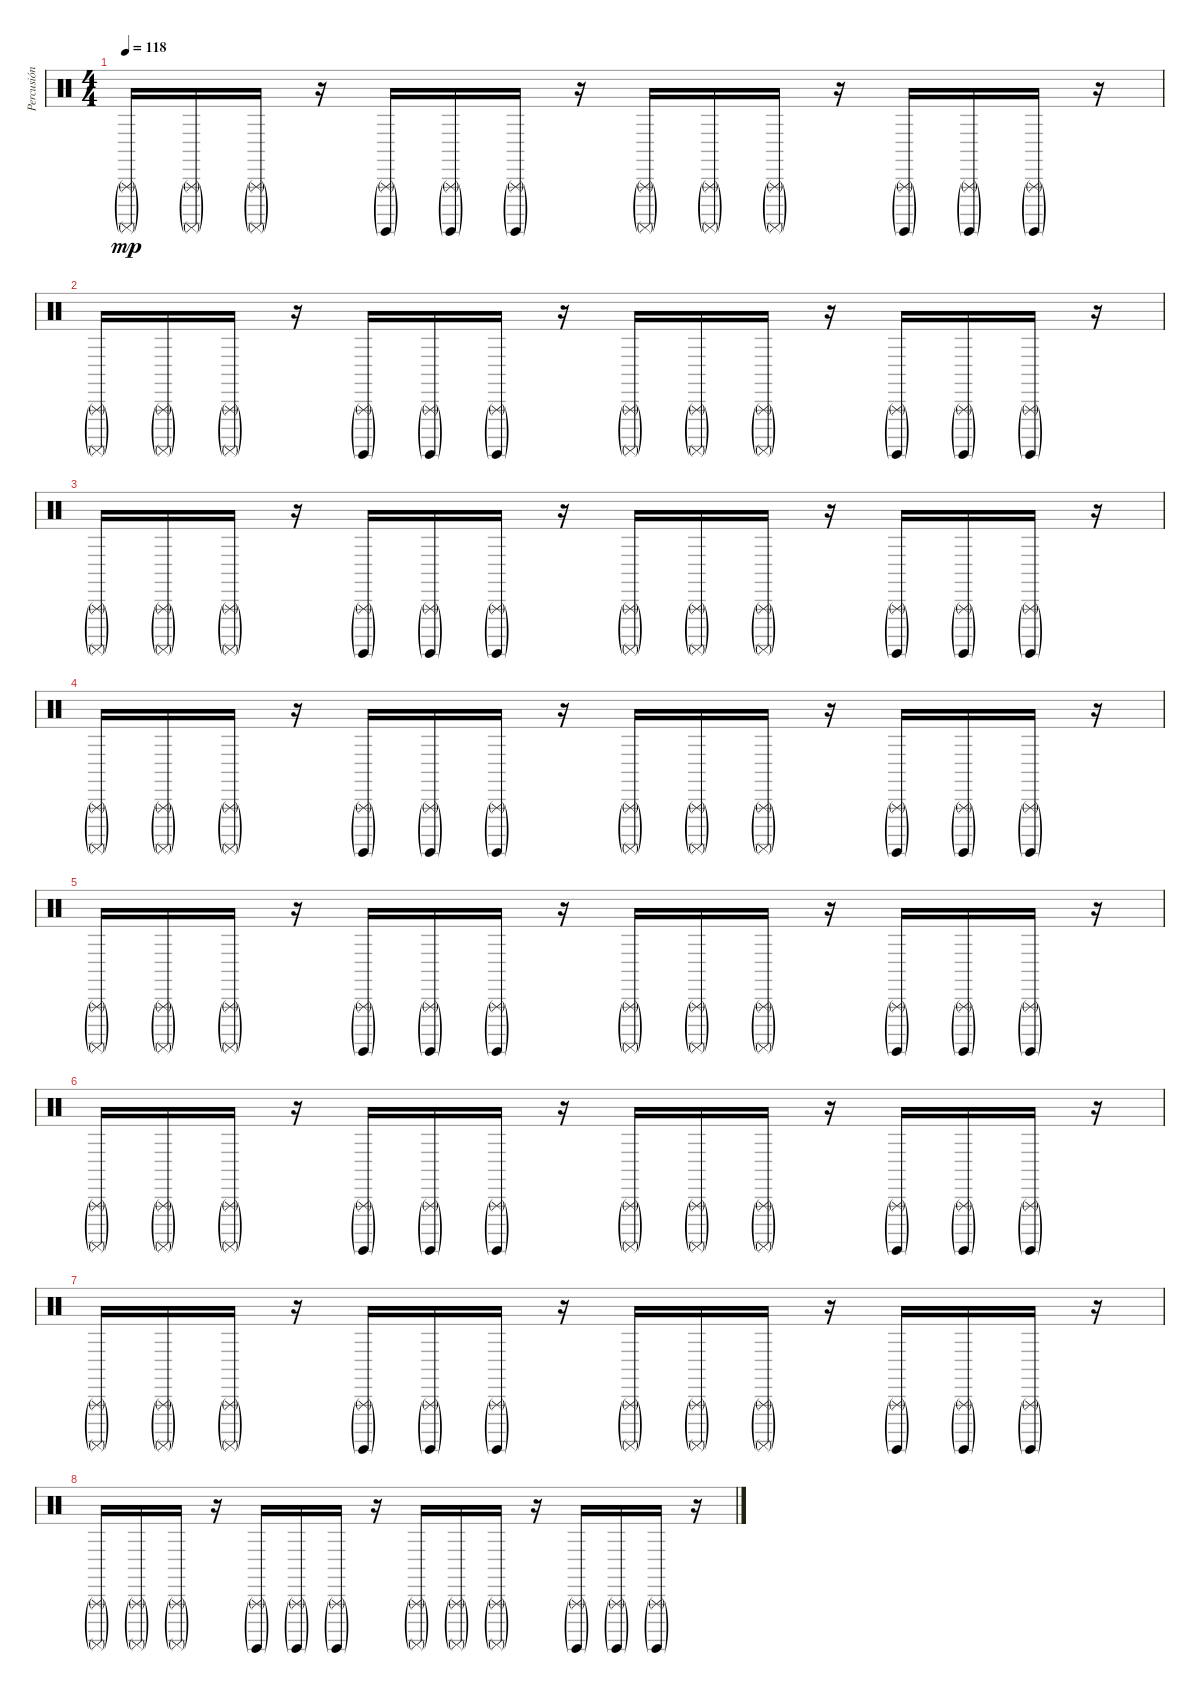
\track ("Percusión" "Percusión") {instrument percussion}
\staff {score}
\articulation defaults
\ts (4 4)
\tempo 118
\clef neutral
\ks c
("Triangle (rnute)"{g} "Surdo (mute)"{g}).16{dy mp} ("Triangle (rnute)"{g} "Surdo (mute)"{g}).16 ("Triangle (rnute)"{g} "Surdo (mute)"{g}).16 r.16 ("Triangle (rnute)"{g} "Surdo (hit)"{g}).16 ("Triangle (rnute)"{g} "Surdo (hit)"{g}).16 ("Triangle (rnute)"{g} "Surdo (hit)"{g}).16 r.16 ("Triangle (rnute)"{g} "Surdo (mute)"{g}).16 ("Triangle (rnute)"{g} "Surdo (mute)"{g}).16 ("Triangle (rnute)"{g} "Surdo (mute)"{g}).16 r.16 ("Triangle (rnute)"{g} "Surdo (hit)"{g}).16 ("Triangle (rnute)"{g} "Surdo (hit)"{g}).16 ("Triangle (rnute)"{g} "Surdo (hit)"{g}).16 r.16 |
("Triangle (rnute)"{g} "Surdo (mute)"{g}).16 ("Triangle (rnute)"{g} "Surdo (mute)"{g}).16 ("Triangle (rnute)"{g} "Surdo (mute)"{g}).16 r.16 ("Triangle (rnute)"{g} "Surdo (hit)"{g}).16 ("Triangle (rnute)"{g} "Surdo (hit)"{g}).16 ("Triangle (rnute)"{g} "Surdo (hit)"{g}).16 r.16 ("Triangle (rnute)"{g} "Surdo (mute)"{g}).16 ("Triangle (rnute)"{g} "Surdo (mute)"{g}).16 ("Triangle (rnute)"{g} "Surdo (mute)"{g}).16 r.16 ("Triangle (rnute)"{g} "Surdo (hit)"{g}).16 ("Triangle (rnute)"{g} "Surdo (hit)"{g}).16 ("Triangle (rnute)"{g} "Surdo (hit)"{g}).16 r.16 |
("Triangle (rnute)"{g} "Surdo (mute)"{g}).16 ("Triangle (rnute)"{g} "Surdo (mute)"{g}).16 ("Triangle (rnute)"{g} "Surdo (mute)"{g}).16 r.16 ("Triangle (rnute)"{g} "Surdo (hit)"{g}).16 ("Triangle (rnute)"{g} "Surdo (hit)"{g}).16 ("Triangle (rnute)"{g} "Surdo (hit)"{g}).16 r.16 ("Triangle (rnute)"{g} "Surdo (mute)"{g}).16 ("Triangle (rnute)"{g} "Surdo (mute)"{g}).16 ("Triangle (rnute)"{g} "Surdo (mute)"{g}).16 r.16 ("Triangle (rnute)"{g} "Surdo (hit)"{g}).16 ("Triangle (rnute)"{g} "Surdo (hit)"{g}).16 ("Triangle (rnute)"{g} "Surdo (hit)"{g}).16 r.16 |
("Triangle (rnute)"{g} "Surdo (mute)"{g}).16 ("Triangle (rnute)"{g} "Surdo (mute)"{g}).16 ("Triangle (rnute)"{g} "Surdo (mute)"{g}).16 r.16 ("Triangle (rnute)"{g} "Surdo (hit)"{g}).16 ("Triangle (rnute)"{g} "Surdo (hit)"{g}).16 ("Triangle (rnute)"{g} "Surdo (hit)"{g}).16 r.16 ("Triangle (rnute)"{g} "Surdo (mute)"{g}).16 ("Triangle (rnute)"{g} "Surdo (mute)"{g}).16 ("Triangle (rnute)"{g} "Surdo (mute)"{g}).16 r.16 ("Triangle (rnute)"{g} "Surdo (hit)"{g}).16 ("Triangle (rnute)"{g} "Surdo (hit)"{g}).16 ("Triangle (rnute)"{g} "Surdo (hit)"{g}).16 r.16 |
("Triangle (rnute)"{g} "Surdo (mute)"{g}).16 ("Triangle (rnute)"{g} "Surdo (mute)"{g}).16 ("Triangle (rnute)"{g} "Surdo (mute)"{g}).16 r.16 ("Triangle (rnute)"{g} "Surdo (hit)"{g}).16 ("Triangle (rnute)"{g} "Surdo (hit)"{g}).16 ("Triangle (rnute)"{g} "Surdo (hit)"{g}).16 r.16 ("Triangle (rnute)"{g} "Surdo (mute)"{g}).16 ("Triangle (rnute)"{g} "Surdo (mute)"{g}).16 ("Triangle (rnute)"{g} "Surdo (mute)"{g}).16 r.16 ("Triangle (rnute)"{g} "Surdo (hit)"{g}).16 ("Triangle (rnute)"{g} "Surdo (hit)"{g}).16 ("Triangle (rnute)"{g} "Surdo (hit)"{g}).16 r.16 |
("Triangle (rnute)"{g} "Surdo (mute)"{g}).16 ("Triangle (rnute)"{g} "Surdo (mute)"{g}).16 ("Triangle (rnute)"{g} "Surdo (mute)"{g}).16 r.16 ("Triangle (rnute)"{g} "Surdo (hit)"{g}).16 ("Triangle (rnute)"{g} "Surdo (hit)"{g}).16 ("Triangle (rnute)"{g} "Surdo (hit)"{g}).16 r.16 ("Triangle (rnute)"{g} "Surdo (mute)"{g}).16 ("Triangle (rnute)"{g} "Surdo (mute)"{g}).16 ("Triangle (rnute)"{g} "Surdo (mute)"{g}).16 r.16 ("Triangle (rnute)"{g} "Surdo (hit)"{g}).16 ("Triangle (rnute)"{g} "Surdo (hit)"{g}).16 ("Triangle (rnute)"{g} "Surdo (hit)"{g}).16 r.16 |
("Triangle (rnute)"{g} "Surdo (mute)"{g}).16 ("Triangle (rnute)"{g} "Surdo (mute)"{g}).16 ("Triangle (rnute)"{g} "Surdo (mute)"{g}).16 r.16 ("Triangle (rnute)"{g} "Surdo (hit)"{g}).16 ("Triangle (rnute)"{g} "Surdo (hit)"{g}).16 ("Triangle (rnute)"{g} "Surdo (hit)"{g}).16 r.16 ("Triangle (rnute)"{g} "Surdo (mute)"{g}).16 ("Triangle (rnute)"{g} "Surdo (mute)"{g}).16 ("Triangle (rnute)"{g} "Surdo (mute)"{g}).16 r.16 ("Triangle (rnute)"{g} "Surdo (hit)"{g}).16 ("Triangle (rnute)"{g} "Surdo (hit)"{g}).16 ("Triangle (rnute)"{g} "Surdo (hit)"{g}).16 r.16 |
("Triangle (rnute)"{g} "Surdo (mute)"{g}).16 ("Triangle (rnute)"{g} "Surdo (mute)"{g}).16 ("Triangle (rnute)"{g} "Surdo (mute)"{g}).16 r.16 ("Triangle (rnute)"{g} "Surdo (hit)"{g}).16 ("Triangle (rnute)"{g} "Surdo (hit)"{g}).16 ("Triangle (rnute)"{g} "Surdo (hit)"{g}).16 r.16 ("Triangle (rnute)"{g} "Surdo (mute)"{g}).16 ("Triangle (rnute)"{g} "Surdo (mute)"{g}).16 ("Triangle (rnute)"{g} "Surdo (mute)"{g}).16 r.16 ("Triangle (rnute)"{g} "Surdo (hit)"{g}).16 ("Triangle (rnute)"{g} "Surdo (hit)"{g}).16 ("Triangle (rnute)"{g} "Surdo (hit)"{g}).16 r.16
